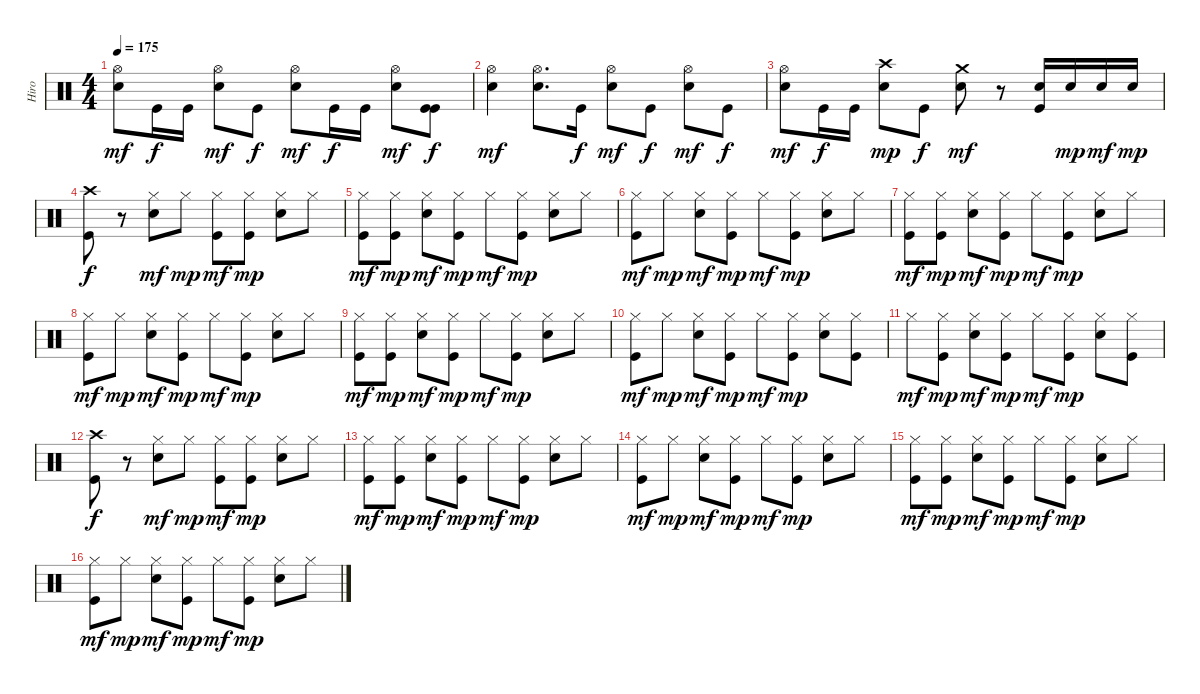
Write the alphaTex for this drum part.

\track ("Hiro" "Hiro") {instrument percussion}
\staff {score}
\articulation defaults
\ts (4 4)
\tempo 175
\clef neutral
\ks c
("Electric Snare (hit)" "Hi-Hat (open)").8{dy mf} "Kick (hit)".16{dy f} "Kick (hit)".16 ("Electric Snare (hit)" "Hi-Hat (open)").8{dy mf} "Kick (hit)".8{dy f} ("Electric Snare (hit)" "Hi-Hat (open)").8{dy mf} "Kick (hit)".16{dy f} "Kick (hit)".16 ("Electric Snare (hit)" "Hi-Hat (open)").8{dy mf} ("Kick (hit)" "Kick (hit)").8{dy f} |
("Electric Snare (hit)" "Hi-Hat (open)").4{dy mf} ("Electric Snare (hit)" "Hi-Hat (open)").8{d} "Kick (hit)".16{dy f} ("Electric Snare (hit)" "Hi-Hat (open)").8{dy mf} "Kick (hit)".8{dy f} ("Electric Snare (hit)" "Hi-Hat (open)").8{dy mf} "Kick (hit)".8{dy f} |
("Electric Snare (hit)" "Hi-Hat (open)").8{dy mf} "Kick (hit)".16{dy f} "Kick (hit)".16 ("Crash high (hit)" "Electric Snare (hit)").8{dy mp} "Kick (hit)".8{dy f} ("Crash medium (hit)" "Electric Snare (hit)").8{dy mf} r.8 ("Electric Snare (hit)" "Kick (hit)").16 "Electric Snare (hit)".16{dy mp} "Electric Snare (hit)".16{dy mf} "Electric Snare (hit)".16{dy mp} |
("Crash high (hit)" "Kick (hit)").8{dy f} r.8 ("Hi-Hat (closed)" "Electric Snare (hit)").8{dy mf} "Hi-Hat (closed)".8{dy mp} ("Hi-Hat (closed)" "Kick (hit)").8{dy mf} ("Hi-Hat (closed)" "Kick (hit)").8{dy mp} ("Hi-Hat (closed)" "Electric Snare (hit)").8 "Hi-Hat (closed)".8 |
("Hi-Hat (closed)" "Kick (hit)").8{dy mf} ("Hi-Hat (closed)" "Kick (hit)").8{dy mp} ("Hi-Hat (closed)" "Electric Snare (hit)").8{dy mf} ("Hi-Hat (closed)" "Kick (hit)").8{dy mp} "Hi-Hat (closed)".8{dy mf} ("Hi-Hat (closed)" "Kick (hit)").8{dy mp} ("Hi-Hat (closed)" "Electric Snare (hit)").8 "Hi-Hat (closed)".8 |
("Hi-Hat (closed)" "Kick (hit)").8{dy mf} "Hi-Hat (closed)".8{dy mp} ("Hi-Hat (closed)" "Electric Snare (hit)").8{dy mf} ("Hi-Hat (closed)" "Kick (hit)").8{dy mp} "Hi-Hat (closed)".8{dy mf} ("Hi-Hat (closed)" "Kick (hit)").8{dy mp} ("Hi-Hat (closed)" "Electric Snare (hit)").8 "Hi-Hat (closed)".8 |
("Hi-Hat (closed)" "Kick (hit)").8{dy mf} ("Hi-Hat (closed)" "Kick (hit)").8{dy mp} ("Hi-Hat (closed)" "Electric Snare (hit)").8{dy mf} ("Hi-Hat (closed)" "Kick (hit)").8{dy mp} "Hi-Hat (closed)".8{dy mf} ("Hi-Hat (closed)" "Kick (hit)").8{dy mp} ("Hi-Hat (closed)" "Electric Snare (hit)").8 "Hi-Hat (closed)".8 |
("Hi-Hat (closed)" "Kick (hit)").8{dy mf} "Hi-Hat (closed)".8{dy mp} ("Hi-Hat (closed)" "Electric Snare (hit)").8{dy mf} ("Hi-Hat (closed)" "Kick (hit)").8{dy mp} "Hi-Hat (closed)".8{dy mf} ("Hi-Hat (closed)" "Kick (hit)").8{dy mp} ("Hi-Hat (closed)" "Electric Snare (hit)").8 "Hi-Hat (closed)".8 |
("Hi-Hat (closed)" "Kick (hit)").8{dy mf} ("Hi-Hat (closed)" "Kick (hit)").8{dy mp} ("Hi-Hat (closed)" "Electric Snare (hit)").8{dy mf} ("Hi-Hat (closed)" "Kick (hit)").8{dy mp} "Hi-Hat (closed)".8{dy mf} ("Hi-Hat (closed)" "Kick (hit)").8{dy mp} ("Hi-Hat (closed)" "Electric Snare (hit)").8 "Hi-Hat (closed)".8 |
("Hi-Hat (closed)" "Kick (hit)").8{dy mf} "Hi-Hat (closed)".8{dy mp} ("Hi-Hat (closed)" "Electric Snare (hit)").8{dy mf} ("Hi-Hat (closed)" "Kick (hit)").8{dy mp} "Hi-Hat (closed)".8{dy mf} ("Hi-Hat (closed)" "Kick (hit)").8{dy mp} ("Hi-Hat (closed)" "Electric Snare (hit)").8 ("Hi-Hat (closed)" "Kick (hit)").8 |
"Hi-Hat (closed)".8{dy mf} ("Hi-Hat (closed)" "Kick (hit)").8{dy mp} ("Hi-Hat (closed)" "Electric Snare (hit)").8{dy mf} ("Hi-Hat (closed)" "Kick (hit)").8{dy mp} "Hi-Hat (closed)".8{dy mf} ("Hi-Hat (closed)" "Kick (hit)").8{dy mp} ("Hi-Hat (closed)" "Electric Snare (hit)").8 ("Hi-Hat (closed)" "Kick (hit)").8 |
("Crash high (hit)" "Kick (hit)").8{dy f} r.8 ("Hi-Hat (closed)" "Electric Snare (hit)").8{dy mf} "Hi-Hat (closed)".8{dy mp} ("Hi-Hat (closed)" "Kick (hit)").8{dy mf} ("Hi-Hat (closed)" "Kick (hit)").8{dy mp} ("Hi-Hat (closed)" "Electric Snare (hit)").8 "Hi-Hat (closed)".8 |
("Hi-Hat (closed)" "Kick (hit)").8{dy mf} ("Hi-Hat (closed)" "Kick (hit)").8{dy mp} ("Hi-Hat (closed)" "Electric Snare (hit)").8{dy mf} ("Hi-Hat (closed)" "Kick (hit)").8{dy mp} "Hi-Hat (closed)".8{dy mf} ("Hi-Hat (closed)" "Kick (hit)").8{dy mp} ("Hi-Hat (closed)" "Electric Snare (hit)").8 "Hi-Hat (closed)".8 |
("Hi-Hat (closed)" "Kick (hit)").8{dy mf} "Hi-Hat (closed)".8{dy mp} ("Hi-Hat (closed)" "Electric Snare (hit)").8{dy mf} ("Hi-Hat (closed)" "Kick (hit)").8{dy mp} "Hi-Hat (closed)".8{dy mf} ("Hi-Hat (closed)" "Kick (hit)").8{dy mp} ("Hi-Hat (closed)" "Electric Snare (hit)").8 "Hi-Hat (closed)".8 |
("Hi-Hat (closed)" "Kick (hit)").8{dy mf} ("Hi-Hat (closed)" "Kick (hit)").8{dy mp} ("Hi-Hat (closed)" "Electric Snare (hit)").8{dy mf} ("Hi-Hat (closed)" "Kick (hit)").8{dy mp} "Hi-Hat (closed)".8{dy mf} ("Hi-Hat (closed)" "Kick (hit)").8{dy mp} ("Hi-Hat (closed)" "Electric Snare (hit)").8 "Hi-Hat (closed)".8 |
("Hi-Hat (closed)" "Kick (hit)").8{dy mf} "Hi-Hat (closed)".8{dy mp} ("Hi-Hat (closed)" "Electric Snare (hit)").8{dy mf} ("Hi-Hat (closed)" "Kick (hit)").8{dy mp} "Hi-Hat (closed)".8{dy mf} ("Hi-Hat (closed)" "Kick (hit)").8{dy mp} ("Hi-Hat (closed)" "Electric Snare (hit)").8 "Hi-Hat (closed)".8
